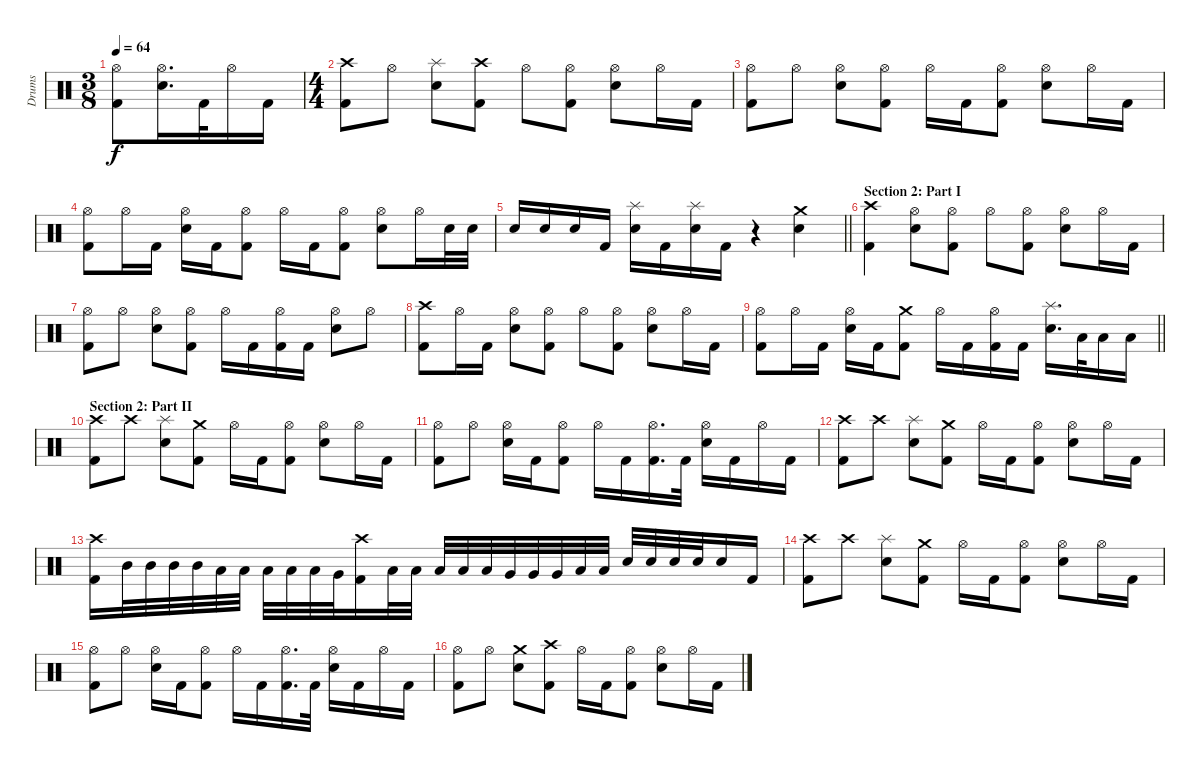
\track ("Drums" "Drums") {instrument percussion}
\staff {score}
\articulation defaults
\ts (3 8)
\tempo 64
\clef neutral
\ks c
("Hi-Hat (open)" "Kick (hit) 2").8{dy f} ("Hi-Hat (open)" "Electric Snare (hit)").16{d} "Kick (hit) 2".32 "Hi-Hat (open)".16 "Kick (hit) 2".16 |
\ts (4 4)
("Crash high (hit)" "Kick (hit) 2").8 "Hi-Hat (open)".8 ("Splash (hit)" "Electric Snare (hit)").8 ("Crash high (hit)" "Kick (hit) 2").8 "Hi-Hat (open)".8 ("Hi-Hat (open)" "Kick (hit) 2").8 ("Hi-Hat (open)" "Electric Snare (hit)").8 "Hi-Hat (open)".16 "Kick (hit) 2".16 |
("Hi-Hat (open)" "Kick (hit) 2").8 "Hi-Hat (open)".8 ("Hi-Hat (open)" "Electric Snare (hit)").8 ("Hi-Hat (open)" "Kick (hit) 2").8 "Hi-Hat (open)".16 "Kick (hit) 2".16 ("Hi-Hat (open)" "Kick (hit) 2").8 ("Hi-Hat (open)" "Electric Snare (hit)").8 "Hi-Hat (open)".16 "Kick (hit) 2".16 |
("Hi-Hat (open)" "Kick (hit) 2").8 "Hi-Hat (open)".16 "Kick (hit) 2".16 ("Hi-Hat (open)" "Electric Snare (hit)").16 "Kick (hit) 2".16 ("Hi-Hat (open)" "Kick (hit) 2").8 "Hi-Hat (open)".16 "Kick (hit) 2".16 ("Hi-Hat (open)" "Kick (hit) 2").8 ("Hi-Hat (open)" "Electric Snare (hit)").8 "Hi-Hat (open)".16 "Electric Snare (hit)".32 "Electric Snare (hit)".32 |
\barLineRight lightlight "Electric Snare (hit)".16 "Electric Snare (hit)".16 "Electric Snare (hit)".16 "Kick (hit) 2".16
("Splash (hit)" "Electric Snare (hit)").16 "Kick (hit) 2".16 ("Splash (hit)" "Electric Snare (hit)").16 "Kick (hit) 2".16 r.4 ("Crash medium (hit)" "Electric Snare (hit)").4 |
\section ("" "Section 2: Part I")
("Crash high (hit)" "Kick (hit) 2").4 ("Hi-Hat (open)" "Electric Snare (hit)").8 ("Hi-Hat (open)" "Kick (hit) 2").8 "Hi-Hat (open)".8 ("Hi-Hat (open)" "Kick (hit) 2").8 ("Hi-Hat (open)" "Electric Snare (hit)").8 "Hi-Hat (open)".16 "Kick (hit) 2".16 |
("Hi-Hat (open)" "Kick (hit) 2").8 "Hi-Hat (open)".8 ("Hi-Hat (open)" "Electric Snare (hit)").8 ("Hi-Hat (open)" "Kick (hit) 2").8 "Hi-Hat (open)".16 "Kick (hit) 2".16 ("Hi-Hat (open)" "Kick (hit) 2").16 "Kick (hit) 2".16 ("Hi-Hat (open)" "Electric Snare (hit)").8 "Hi-Hat (open)".8 |
("Crash high (hit)" "Kick (hit) 2").8 "Hi-Hat (open)".16 "Kick (hit) 2".16 ("Hi-Hat (open)" "Electric Snare (hit)").8 ("Hi-Hat (open)" "Kick (hit) 2").8 "Hi-Hat (open)".8 ("Hi-Hat (open)" "Kick (hit) 2").8 ("Hi-Hat (open)" "Electric Snare (hit)").8 "Hi-Hat (open)".16 "Kick (hit) 2".16 |
\barLineRight lightlight
("Hi-Hat (open)" "Kick (hit) 2").8 "Hi-Hat (open)".16 "Kick (hit) 2".16 ("Hi-Hat (open)" "Electric Snare (hit)").16 "Kick (hit) 2".16 ("Crash medium (hit)" "Kick (hit) 2").8 "Hi-Hat (open)".16 "Kick (hit) 2".16 ("Hi-Hat (open)" "Kick (hit) 2").16 "Kick (hit) 2".16 ("Splash (hit)" "Electric Snare (hit)").16{d} "Low Floor Tom (hit)".32 "Low Floor Tom (hit)".16 "Low Floor Tom (hit)".16 |
\section ("" "Section 2: Part II")
("Crash high (hit)" "Kick (hit) 2").8 "Crash high (hit)".8 ("Splash (hit)" "Electric Snare (hit)").8 ("Crash medium (hit)" "Kick (hit) 2").8 "Hi-Hat (open)".16 "Kick (hit) 2".16 ("Hi-Hat (open)" "Kick (hit) 2").8 ("Hi-Hat (open)" "Electric Snare (hit)").8 "Hi-Hat (open)".16 "Kick (hit) 2".16 |
("Hi-Hat (open)" "Kick (hit) 2").8 "Hi-Hat (open)".8 ("Hi-Hat (open)" "Electric Snare (hit)").16 "Kick (hit) 2".16 ("Hi-Hat (open)" "Kick (hit) 2").8 "Hi-Hat (open)".16 "Kick (hit) 2".16 ("Hi-Hat (open)" "Kick (hit) 2").16{d} "Kick (hit) 2".32 ("Hi-Hat (open)" "Electric Snare (hit)").16 "Kick (hit) 2".16 "Hi-Hat (open)".16 "Kick (hit) 2".16 |
("Crash high (hit)" "Kick (hit) 2").8 "Crash high (hit)".8 ("Splash (hit)" "Electric Snare (hit)").8 ("Crash medium (hit)" "Kick (hit) 2").8 "Hi-Hat (open)".16 "Kick (hit) 2".16 ("Hi-Hat (open)" "Kick (hit) 2").8 ("Hi-Hat (open)" "Electric Snare (hit)").8 "Hi-Hat (open)".16 "Kick (hit) 2".16 |
("Crash high (hit)" "Kick (hit) 2").16 "Mid Tom (hit)".32 "Mid Tom (hit)".32 "Mid Tom (hit)".32 "Mid Tom (hit)".32 "Low Tom (hit)".32 "Low Tom (hit)".32 "Low Tom (hit)".32 "Low Tom (hit)".32 "Low Tom (hit)".32 "Very Low Tom (hit)".32 ("Crash high (hit)" "Kick (hit) 2").16 "Low Tom (hit)".32 "Low Tom (hit)".32 "Low Tom (hit)".32 "Low Tom (hit)".32 "Low Tom (hit)".32 "Very Low Tom (hit)".32 "Very Low Tom (hit)".32 "Very Low Tom (hit)".32 "Low Floor Tom (hit)".32 "Low Floor Tom (hit)".32 "Electric Snare (hit)".32 "Electric Snare (hit)".32 "Electric Snare (hit)".32 "Electric Snare (hit)".32 "Electric Snare (hit)".16 "Kick (hit) 2".16 |
("Crash high (hit)" "Kick (hit) 2").8 "Crash high (hit)".8 ("Splash (hit)" "Electric Snare (hit)").8 ("Crash medium (hit)" "Kick (hit) 2").8 "Hi-Hat (open)".16 "Kick (hit) 2".16 ("Hi-Hat (open)" "Kick (hit) 2").8 ("Hi-Hat (open)" "Electric Snare (hit)").8 "Hi-Hat (open)".16 "Kick (hit) 2".16 |
("Hi-Hat (open)" "Kick (hit) 2").8 "Hi-Hat (open)".8 ("Hi-Hat (open)" "Electric Snare (hit)").16 "Kick (hit) 2".16 ("Hi-Hat (open)" "Kick (hit) 2").8 "Hi-Hat (open)".16 "Kick (hit) 2".16 ("Hi-Hat (open)" "Kick (hit) 2").16{d} "Kick (hit) 2".32 ("Hi-Hat (open)" "Electric Snare (hit)").16 "Kick (hit) 2".16 "Hi-Hat (open)".16 "Kick (hit) 2".16 |
("Hi-Hat (open)" "Kick (hit) 2").8 "Hi-Hat (open)".8 ("Crash medium (hit)" "Electric Snare (hit)").8 ("Crash high (hit)" "Kick (hit) 2").8 "Hi-Hat (open)".16 "Kick (hit) 2".16 ("Hi-Hat (open)" "Kick (hit) 2").8 ("Hi-Hat (open)" "Electric Snare (hit)").8 "Hi-Hat (open)".16 "Kick (hit) 2".16
